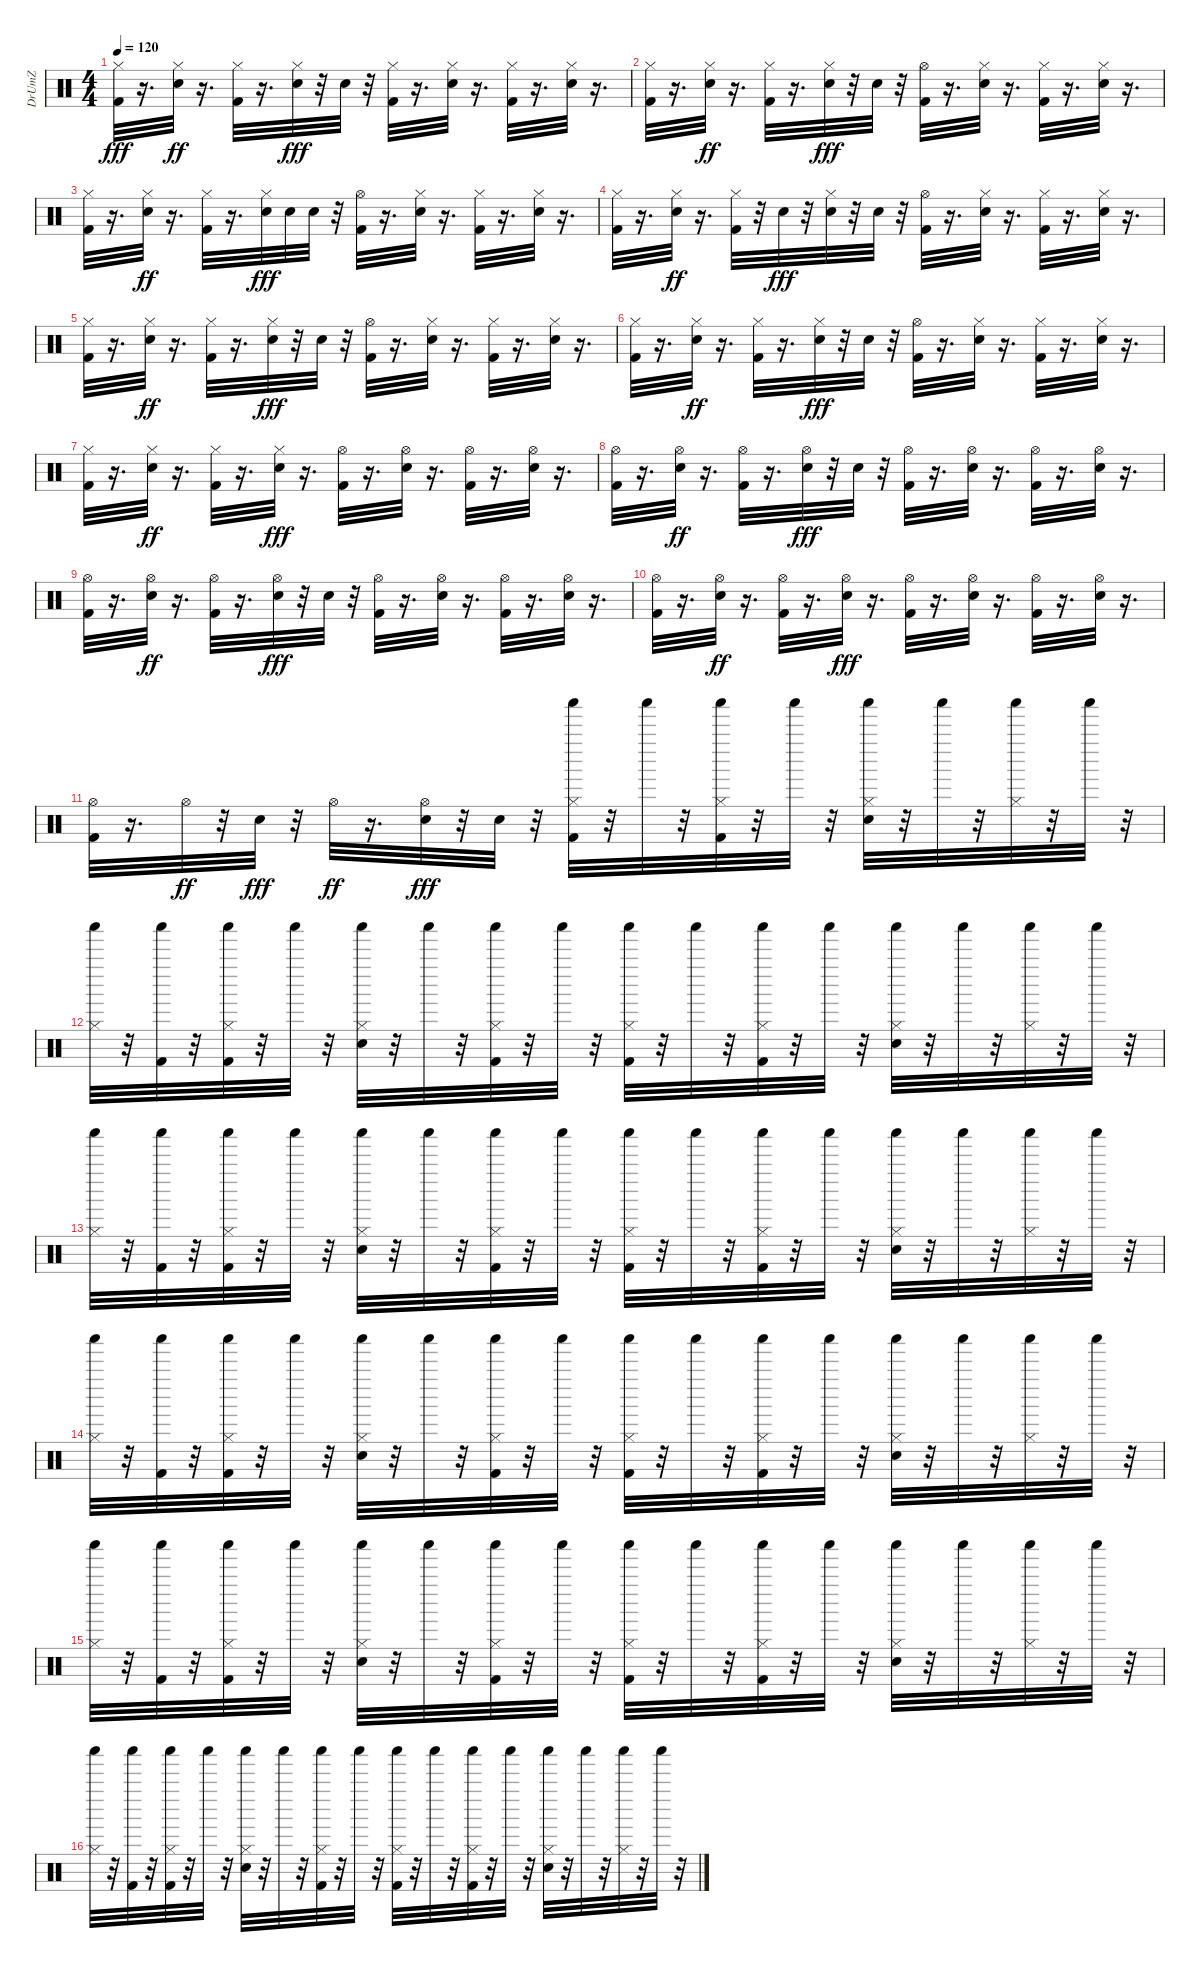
\track ("DrUmZ" "DrUmZ") {instrument percussion}
\staff {score}
\articulation defaults
\ts (4 4)
\tempo 120
\clef neutral
\ks c
("Kick (hit) 2" "Hi-Hat (closed)").32{dy fff} r.16{d} ("Electric Snare (hit)" "Hi-Hat (closed)").32{dy ff} r.16{d} ("Kick (hit) 2" "Hi-Hat (closed)").32 r.16{d} ("Electric Snare (hit)" "Hi-Hat (closed)").32{dy fff} r.32 "Electric Snare (hit)".32 r.32 ("Hi-Hat (closed)" "Kick (hit) 2").32 r.16{d} ("Electric Snare (hit)" "Hi-Hat (closed)").32 r.16{d} ("Kick (hit) 2" "Hi-Hat (closed)").32 r.16{d} ("Electric Snare (hit)" "Hi-Hat (closed)").32 r.16{d} |
("Kick (hit) 2" "Hi-Hat (closed)").32 r.16{d} ("Electric Snare (hit)" "Hi-Hat (closed)").32{dy ff} r.16{d} ("Kick (hit) 2" "Hi-Hat (closed)").32 r.16{d} ("Electric Snare (hit)" "Hi-Hat (closed)").32{dy fff} r.32 "Electric Snare (hit)".32 r.32 ("Kick (hit) 2" "Hi-Hat (open)").32 r.16{d} ("Electric Snare (hit)" "Hi-Hat (closed)").32 r.16{d} ("Kick (hit) 2" "Hi-Hat (closed)").32 r.16{d} ("Electric Snare (hit)" "Hi-Hat (closed)").32 r.16{d} |
("Kick (hit) 2" "Hi-Hat (closed)").32 r.16{d} ("Electric Snare (hit)" "Hi-Hat (closed)").32{dy ff} r.16{d} ("Kick (hit) 2" "Hi-Hat (closed)").32 r.16{d} ("Electric Snare (hit)" "Hi-Hat (closed)").32{dy fff} "Electric Snare (hit)".32 "Electric Snare (hit)".32 r.32 ("Hi-Hat (open)" "Kick (hit) 2").32 r.16{d} ("Electric Snare (hit)" "Hi-Hat (closed)").32 r.16{d} ("Kick (hit) 2" "Hi-Hat (closed)").32 r.16{d} ("Electric Snare (hit)" "Hi-Hat (closed)").32 r.16{d} |
("Kick (hit) 2" "Hi-Hat (closed)").32 r.16{d} ("Electric Snare (hit)" "Hi-Hat (closed)").32{dy ff} r.16{d} ("Kick (hit) 2" "Hi-Hat (closed)").32 r.32 "Electric Snare (hit)".32{dy fff} r.32 ("Electric Snare (hit)" "Hi-Hat (closed)").32 r.32 "Electric Snare (hit)".32 r.32 ("Hi-Hat (open)" "Kick (hit) 2").32 r.16{d} ("Electric Snare (hit)" "Hi-Hat (closed)").32 r.16{d} ("Kick (hit) 2" "Hi-Hat (closed)").32 r.16{d} ("Electric Snare (hit)" "Hi-Hat (closed)").32 r.16{d} |
("Kick (hit) 2" "Hi-Hat (closed)").32 r.16{d} ("Electric Snare (hit)" "Hi-Hat (closed)").32{dy ff} r.16{d} ("Kick (hit) 2" "Hi-Hat (closed)").32 r.16{d} ("Electric Snare (hit)" "Hi-Hat (closed)").32{dy fff} r.32 "Electric Snare (hit)".32 r.32 ("Hi-Hat (open)" "Kick (hit) 2").32 r.16{d} ("Electric Snare (hit)" "Hi-Hat (closed)").32 r.16{d} ("Kick (hit) 2" "Hi-Hat (closed)").32 r.16{d} ("Electric Snare (hit)" "Hi-Hat (closed)").32 r.16{d} |
("Kick (hit) 2" "Hi-Hat (closed)").32 r.16{d} ("Electric Snare (hit)" "Hi-Hat (closed)").32{dy ff} r.16{d} ("Kick (hit) 2" "Hi-Hat (closed)").32 r.16{d} ("Electric Snare (hit)" "Hi-Hat (closed)").32{dy fff} r.32 "Electric Snare (hit)".32 r.32 ("Hi-Hat (open)" "Kick (hit) 2").32 r.16{d} ("Electric Snare (hit)" "Hi-Hat (closed)").32 r.16{d} ("Kick (hit) 2" "Hi-Hat (closed)").32 r.16{d} ("Electric Snare (hit)" "Hi-Hat (closed)").32 r.16{d} |
("Kick (hit) 2" "Hi-Hat (closed)").32 r.16{d} ("Electric Snare (hit)" "Hi-Hat (closed)").32{dy ff} r.16{d} ("Kick (hit) 2" "Hi-Hat (closed)").32 r.16{d} ("Electric Snare (hit)" "Hi-Hat (closed)").32{dy fff} r.16{d} ("Hi-Hat (open)" "Kick (hit) 2").32 r.16{d} ("Electric Snare (hit)" "Hi-Hat (open)").32 r.16{d} ("Kick (hit) 2" "Hi-Hat (open)").32 r.16{d} ("Electric Snare (hit)" "Hi-Hat (open)").32 r.16{d} |
("Kick (hit) 2" "Hi-Hat (open)").32 r.16{d} ("Electric Snare (hit)" "Hi-Hat (open)").32{dy ff} r.16{d} ("Kick (hit) 2" "Hi-Hat (open)").32 r.16{d} ("Electric Snare (hit)" "Hi-Hat (open)").32{dy fff} r.32 "Electric Snare (hit)".32 r.32 ("Kick (hit) 2" "Hi-Hat (open)").32 r.16{d} ("Electric Snare (hit)" "Hi-Hat (open)").32 r.16{d} ("Kick (hit) 2" "Hi-Hat (open)").32 r.16{d} ("Electric Snare (hit)" "Hi-Hat (open)").32 r.16{d} |
("Kick (hit) 2" "Hi-Hat (open)").32 r.16{d} ("Electric Snare (hit)" "Hi-Hat (open)").32{dy ff} r.16{d} ("Kick (hit) 2" "Hi-Hat (open)").32 r.16{d} ("Electric Snare (hit)" "Hi-Hat (open)").32{dy fff} r.32 "Electric Snare (hit)".32 r.32 ("Kick (hit) 2" "Hi-Hat (open)").32 r.16{d} ("Electric Snare (hit)" "Hi-Hat (open)").32 r.16{d} ("Kick (hit) 2" "Hi-Hat (open)").32 r.16{d} ("Electric Snare (hit)" "Hi-Hat (open)").32 r.16{d} |
("Kick (hit) 2" "Hi-Hat (open)").32 r.16{d} ("Electric Snare (hit)" "Hi-Hat (open)").32{dy ff} r.16{d} ("Kick (hit) 2" "Hi-Hat (open)").32 r.16{d} ("Electric Snare (hit)" "Hi-Hat (open)").32{dy fff} r.16{d} ("Kick (hit) 2" "Hi-Hat (open)").32 r.16{d} ("Electric Snare (hit)" "Hi-Hat (open)").32 r.16{d} ("Kick (hit) 2" "Hi-Hat (open)").32 r.16{d} ("Electric Snare (hit)" "Hi-Hat (open)").32 r.16{d} |
("Kick (hit) 2" "Hi-Hat (open)").32 r.16{d} "Hi-Hat (open)".32{dy ff} r.32 "Electric Snare (hit)".32{dy fff} r.32 "Hi-Hat (open)".32{dy ff} r.16{d} ("Electric Snare (hit)" "Hi-Hat (open)").32{dy fff} r.32 "Electric Snare (hit)".32 r.32 ("Hi-Hat (closed)" "Kick (hit) 2" "Shaker (hit)").32 r.32 "Shaker (hit)".32 r.32 ("Shaker (hit)" "Kick (hit) 2" "Hi-Hat (closed)").32 r.32 "Shaker (hit)".32 r.32 ("Shaker (hit)" "Electric Snare (hit)" "Hi-Hat (closed)").32 r.32 "Shaker (hit)".32 r.32 ("Shaker (hit)" "Hi-Hat (closed)").32 r.32 "Shaker (hit)".32 r.32 |
("Shaker (hit)" "Hi-Hat (closed)").32 r.32 ("Shaker (hit)" "Kick (hit) 2").32 r.32 ("Shaker (hit)" "Kick (hit) 2" "Hi-Hat (closed)").32 r.32 "Shaker (hit)".32 r.32 ("Shaker (hit)" "Electric Snare (hit)" "Hi-Hat (closed)").32 r.32 "Shaker (hit)".32 r.32 ("Shaker (hit)" "Kick (hit) 2" "Hi-Hat (closed)").32 r.32 "Shaker (hit)".32 r.32 ("Hi-Hat (closed)" "Kick (hit) 2" "Shaker (hit)").32 r.32 "Shaker (hit)".32 r.32 ("Shaker (hit)" "Kick (hit) 2" "Hi-Hat (closed)").32 r.32 "Shaker (hit)".32 r.32 ("Shaker (hit)" "Electric Snare (hit)" "Hi-Hat (closed)").32 r.32 "Shaker (hit)".32 r.32 ("Shaker (hit)" "Hi-Hat (closed)").32 r.32 "Shaker (hit)".32 r.32 |
("Shaker (hit)" "Hi-Hat (closed)").32 r.32 ("Shaker (hit)" "Kick (hit) 2").32 r.32 ("Shaker (hit)" "Kick (hit) 2" "Hi-Hat (closed)").32 r.32 "Shaker (hit)".32 r.32 ("Shaker (hit)" "Electric Snare (hit)" "Hi-Hat (closed)").32 r.32 "Shaker (hit)".32 r.32 ("Shaker (hit)" "Kick (hit) 2" "Hi-Hat (closed)").32 r.32 "Shaker (hit)".32 r.32 ("Hi-Hat (closed)" "Kick (hit) 2" "Shaker (hit)").32 r.32 "Shaker (hit)".32 r.32 ("Shaker (hit)" "Kick (hit) 2" "Hi-Hat (closed)").32 r.32 "Shaker (hit)".32 r.32 ("Shaker (hit)" "Electric Snare (hit)" "Hi-Hat (closed)").32 r.32 "Shaker (hit)".32 r.32 ("Shaker (hit)" "Hi-Hat (closed)").32 r.32 "Shaker (hit)".32 r.32 |
("Shaker (hit)" "Hi-Hat (closed)").32 r.32 ("Shaker (hit)" "Kick (hit) 2").32 r.32 ("Shaker (hit)" "Kick (hit) 2" "Hi-Hat (closed)").32 r.32 "Shaker (hit)".32 r.32 ("Shaker (hit)" "Electric Snare (hit)" "Hi-Hat (closed)").32 r.32 "Shaker (hit)".32 r.32 ("Shaker (hit)" "Kick (hit) 2" "Hi-Hat (closed)").32 r.32 "Shaker (hit)".32 r.32 ("Hi-Hat (closed)" "Kick (hit) 2" "Shaker (hit)").32 r.32 "Shaker (hit)".32 r.32 ("Shaker (hit)" "Kick (hit) 2" "Hi-Hat (closed)").32 r.32 "Shaker (hit)".32 r.32 ("Shaker (hit)" "Electric Snare (hit)" "Hi-Hat (closed)").32 r.32 "Shaker (hit)".32 r.32 ("Shaker (hit)" "Hi-Hat (closed)").32 r.32 "Shaker (hit)".32 r.32 |
("Shaker (hit)" "Hi-Hat (closed)").32 r.32 ("Shaker (hit)" "Kick (hit) 2").32 r.32 ("Shaker (hit)" "Kick (hit) 2" "Hi-Hat (closed)").32 r.32 "Shaker (hit)".32 r.32 ("Shaker (hit)" "Electric Snare (hit)" "Hi-Hat (closed)").32 r.32 "Shaker (hit)".32 r.32 ("Shaker (hit)" "Kick (hit) 2" "Hi-Hat (closed)").32 r.32 "Shaker (hit)".32 r.32 ("Hi-Hat (closed)" "Kick (hit) 2" "Shaker (hit)").32 r.32 "Shaker (hit)".32 r.32 ("Shaker (hit)" "Kick (hit) 2" "Hi-Hat (closed)").32 r.32 "Shaker (hit)".32 r.32 ("Shaker (hit)" "Electric Snare (hit)" "Hi-Hat (closed)").32 r.32 "Shaker (hit)".32 r.32 ("Shaker (hit)" "Hi-Hat (closed)").32 r.32 "Shaker (hit)".32 r.32 |
("Shaker (hit)" "Hi-Hat (closed)").32 r.32 ("Shaker (hit)" "Kick (hit) 2").32 r.32 ("Shaker (hit)" "Kick (hit) 2" "Hi-Hat (closed)").32 r.32 "Shaker (hit)".32 r.32 ("Shaker (hit)" "Electric Snare (hit)" "Hi-Hat (closed)").32 r.32 "Shaker (hit)".32 r.32 ("Shaker (hit)" "Kick (hit) 2" "Hi-Hat (closed)").32 r.32 "Shaker (hit)".32 r.32 ("Hi-Hat (closed)" "Kick (hit) 2" "Shaker (hit)").32 r.32 "Shaker (hit)".32 r.32 ("Shaker (hit)" "Kick (hit) 2" "Hi-Hat (closed)").32 r.32 "Shaker (hit)".32 r.32 ("Shaker (hit)" "Electric Snare (hit)" "Hi-Hat (closed)").32 r.32 "Shaker (hit)".32 r.32 ("Shaker (hit)" "Hi-Hat (closed)").32 r.32 "Shaker (hit)".32 r.32
